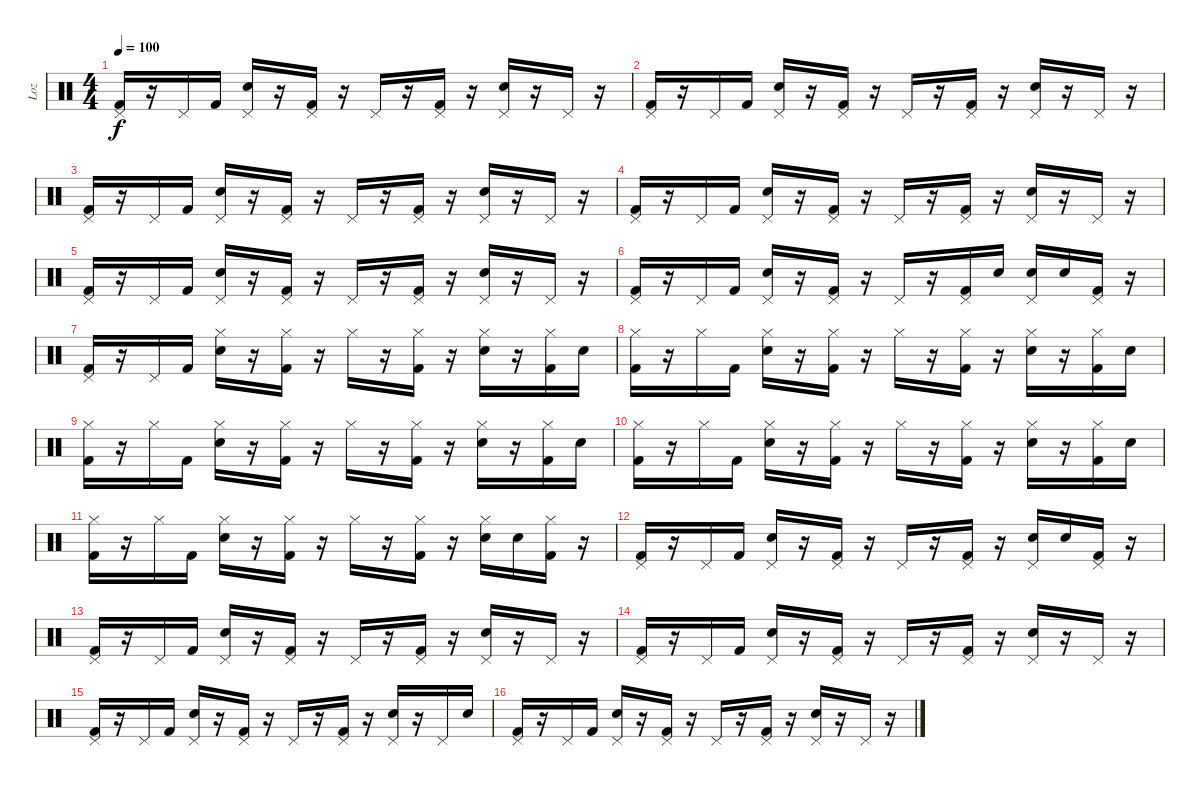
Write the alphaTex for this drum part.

\track ("Loz" "Loz") {instrument percussion}
\staff {score}
\articulation defaults
\ts (4 4)
\tempo 100
\clef neutral
\ks c
("Pedal Hi-Hat (hit)" "Kick (hit) 2").16{dy f} r.16 "Pedal Hi-Hat (hit)".16 "Kick (hit) 2".16 ("Pedal Hi-Hat (hit)" "Electric Snare (hit)").16 r.16 ("Pedal Hi-Hat (hit)" "Kick (hit) 2").16 r.16 "Pedal Hi-Hat (hit)".16 r.16 ("Pedal Hi-Hat (hit)" "Kick (hit) 2").16 r.16 ("Pedal Hi-Hat (hit)" "Electric Snare (hit)").16 r.16 "Pedal Hi-Hat (hit)".16 r.16 |
("Pedal Hi-Hat (hit)" "Kick (hit) 2").16 r.16 "Pedal Hi-Hat (hit)".16 "Kick (hit) 2".16 ("Pedal Hi-Hat (hit)" "Electric Snare (hit)").16 r.16 ("Pedal Hi-Hat (hit)" "Kick (hit) 2").16 r.16 "Pedal Hi-Hat (hit)".16 r.16 ("Pedal Hi-Hat (hit)" "Kick (hit) 2").16 r.16 ("Pedal Hi-Hat (hit)" "Electric Snare (hit)").16 r.16 "Pedal Hi-Hat (hit)".16 r.16 |
("Pedal Hi-Hat (hit)" "Kick (hit) 2").16 r.16 "Pedal Hi-Hat (hit)".16 "Kick (hit) 2".16 ("Pedal Hi-Hat (hit)" "Electric Snare (hit)").16 r.16 ("Pedal Hi-Hat (hit)" "Kick (hit) 2").16 r.16 "Pedal Hi-Hat (hit)".16 r.16 ("Pedal Hi-Hat (hit)" "Kick (hit) 2").16 r.16 ("Pedal Hi-Hat (hit)" "Electric Snare (hit)").16 r.16 "Pedal Hi-Hat (hit)".16 r.16 |
("Pedal Hi-Hat (hit)" "Kick (hit) 2").16 r.16 "Pedal Hi-Hat (hit)".16 "Kick (hit) 2".16 ("Pedal Hi-Hat (hit)" "Electric Snare (hit)").16 r.16 ("Pedal Hi-Hat (hit)" "Kick (hit) 2").16 r.16 "Pedal Hi-Hat (hit)".16 r.16 ("Pedal Hi-Hat (hit)" "Kick (hit) 2").16 r.16 ("Pedal Hi-Hat (hit)" "Electric Snare (hit)").16 r.16 "Pedal Hi-Hat (hit)".16 r.16 |
("Pedal Hi-Hat (hit)" "Kick (hit) 2").16 r.16 "Pedal Hi-Hat (hit)".16 "Kick (hit) 2".16 ("Pedal Hi-Hat (hit)" "Electric Snare (hit)").16 r.16 ("Pedal Hi-Hat (hit)" "Kick (hit) 2").16 r.16 "Pedal Hi-Hat (hit)".16 r.16 ("Pedal Hi-Hat (hit)" "Kick (hit) 2").16 r.16 ("Pedal Hi-Hat (hit)" "Electric Snare (hit)").16 r.16 "Pedal Hi-Hat (hit)".16 r.16 |
("Pedal Hi-Hat (hit)" "Kick (hit) 2").16 r.16 "Pedal Hi-Hat (hit)".16 "Kick (hit) 2".16 ("Pedal Hi-Hat (hit)" "Electric Snare (hit)").16 r.16 ("Pedal Hi-Hat (hit)" "Kick (hit) 2").16 r.16 "Pedal Hi-Hat (hit)".16 r.16 ("Pedal Hi-Hat (hit)" "Kick (hit) 2").16 "Electric Snare (hit)".16 ("Pedal Hi-Hat (hit)" "Electric Snare (hit)").16 "Electric Snare (hit)".16 ("Pedal Hi-Hat (hit)" "Kick (hit) 2").16 r.16 |
("Pedal Hi-Hat (hit)" "Kick (hit) 2").16 r.16 "Pedal Hi-Hat (hit)".16 "Kick (hit) 2".16 ("Hi-Hat (closed)" "Electric Snare (hit)").16 r.16 ("Hi-Hat (closed)" "Kick (hit) 2").16 r.16 "Hi-Hat (closed)".16 r.16 ("Hi-Hat (closed)" "Kick (hit) 2").16 r.16 ("Hi-Hat (closed)" "Electric Snare (hit)").16 r.16 ("Hi-Hat (closed)" "Kick (hit) 2").16 "Electric Snare (hit)".16 |
("Hi-Hat (closed)" "Kick (hit) 2").16 r.16 "Hi-Hat (closed)".16 "Kick (hit) 2".16 ("Hi-Hat (closed)" "Electric Snare (hit)").16 r.16 ("Hi-Hat (closed)" "Kick (hit) 2").16 r.16 "Hi-Hat (closed)".16 r.16 ("Hi-Hat (closed)" "Kick (hit) 2").16 r.16 ("Hi-Hat (closed)" "Electric Snare (hit)").16 r.16 ("Hi-Hat (closed)" "Kick (hit) 2").16 "Electric Snare (hit)".16 |
("Hi-Hat (closed)" "Kick (hit) 2").16 r.16 "Hi-Hat (closed)".16 "Kick (hit) 2".16 ("Hi-Hat (closed)" "Electric Snare (hit)").16 r.16 ("Hi-Hat (closed)" "Kick (hit) 2").16 r.16 "Hi-Hat (closed)".16 r.16 ("Hi-Hat (closed)" "Kick (hit) 2").16 r.16 ("Hi-Hat (closed)" "Electric Snare (hit)").16 r.16 ("Hi-Hat (closed)" "Kick (hit) 2").16 "Electric Snare (hit)".16 |
("Hi-Hat (closed)" "Kick (hit) 2").16 r.16 "Hi-Hat (closed)".16 "Kick (hit) 2".16 ("Hi-Hat (closed)" "Electric Snare (hit)").16 r.16 ("Hi-Hat (closed)" "Kick (hit) 2").16 r.16 "Hi-Hat (closed)".16 r.16 ("Hi-Hat (closed)" "Kick (hit) 2").16 r.16 ("Hi-Hat (closed)" "Electric Snare (hit)").16 r.16 ("Hi-Hat (closed)" "Kick (hit) 2").16 "Electric Snare (hit)".16 |
("Hi-Hat (closed)" "Kick (hit) 2").16 r.16 "Hi-Hat (closed)".16 "Kick (hit) 2".16 ("Hi-Hat (closed)" "Electric Snare (hit)").16 r.16 ("Hi-Hat (closed)" "Kick (hit) 2").16 r.16 "Hi-Hat (closed)".16 r.16 ("Hi-Hat (closed)" "Kick (hit) 2").16 r.16 ("Hi-Hat (closed)" "Electric Snare (hit)").16 "Electric Snare (hit)".16 ("Hi-Hat (closed)" "Kick (hit) 2").16 r.16 |
("Pedal Hi-Hat (hit)" "Kick (hit) 2").16 r.16 "Pedal Hi-Hat (hit)".16 "Kick (hit) 2".16 ("Pedal Hi-Hat (hit)" "Electric Snare (hit)").16 r.16 ("Pedal Hi-Hat (hit)" "Kick (hit) 2").16 r.16 "Pedal Hi-Hat (hit)".16 r.16 ("Pedal Hi-Hat (hit)" "Kick (hit) 2").16 r.16 ("Pedal Hi-Hat (hit)" "Electric Snare (hit)").16 "Electric Snare (hit)".16 ("Pedal Hi-Hat (hit)" "Kick (hit) 2").16 r.16 |
("Pedal Hi-Hat (hit)" "Kick (hit) 2").16 r.16 "Pedal Hi-Hat (hit)".16 "Kick (hit) 2".16 ("Pedal Hi-Hat (hit)" "Electric Snare (hit)").16 r.16 ("Pedal Hi-Hat (hit)" "Kick (hit) 2").16 r.16 "Pedal Hi-Hat (hit)".16 r.16 ("Pedal Hi-Hat (hit)" "Kick (hit) 2").16 r.16 ("Pedal Hi-Hat (hit)" "Electric Snare (hit)").16 r.16 "Pedal Hi-Hat (hit)".16 r.16 |
("Pedal Hi-Hat (hit)" "Kick (hit) 2").16 r.16 "Pedal Hi-Hat (hit)".16 "Kick (hit) 2".16 ("Pedal Hi-Hat (hit)" "Electric Snare (hit)").16 r.16 ("Pedal Hi-Hat (hit)" "Kick (hit) 2").16 r.16 "Pedal Hi-Hat (hit)".16 r.16 ("Pedal Hi-Hat (hit)" "Kick (hit) 2").16 r.16 ("Pedal Hi-Hat (hit)" "Electric Snare (hit)").16 r.16 "Pedal Hi-Hat (hit)".16 r.16 |
("Pedal Hi-Hat (hit)" "Kick (hit) 2").16 r.16 "Pedal Hi-Hat (hit)".16 "Kick (hit) 2".16 ("Pedal Hi-Hat (hit)" "Electric Snare (hit)").16 r.16 ("Pedal Hi-Hat (hit)" "Kick (hit) 2").16 r.16 "Pedal Hi-Hat (hit)".16 r.16 ("Pedal Hi-Hat (hit)" "Kick (hit) 2").16 r.16 ("Pedal Hi-Hat (hit)" "Electric Snare (hit)").16 r.16 "Pedal Hi-Hat (hit)".16 "Electric Snare (hit)".16 |
("Pedal Hi-Hat (hit)" "Kick (hit) 2").16 r.16 "Pedal Hi-Hat (hit)".16 "Kick (hit) 2".16 ("Pedal Hi-Hat (hit)" "Electric Snare (hit)").16 r.16 ("Pedal Hi-Hat (hit)" "Kick (hit) 2").16 r.16 "Pedal Hi-Hat (hit)".16 r.16 ("Pedal Hi-Hat (hit)" "Kick (hit) 2").16 r.16 ("Pedal Hi-Hat (hit)" "Electric Snare (hit)").16 r.16 "Pedal Hi-Hat (hit)".16 r.16
